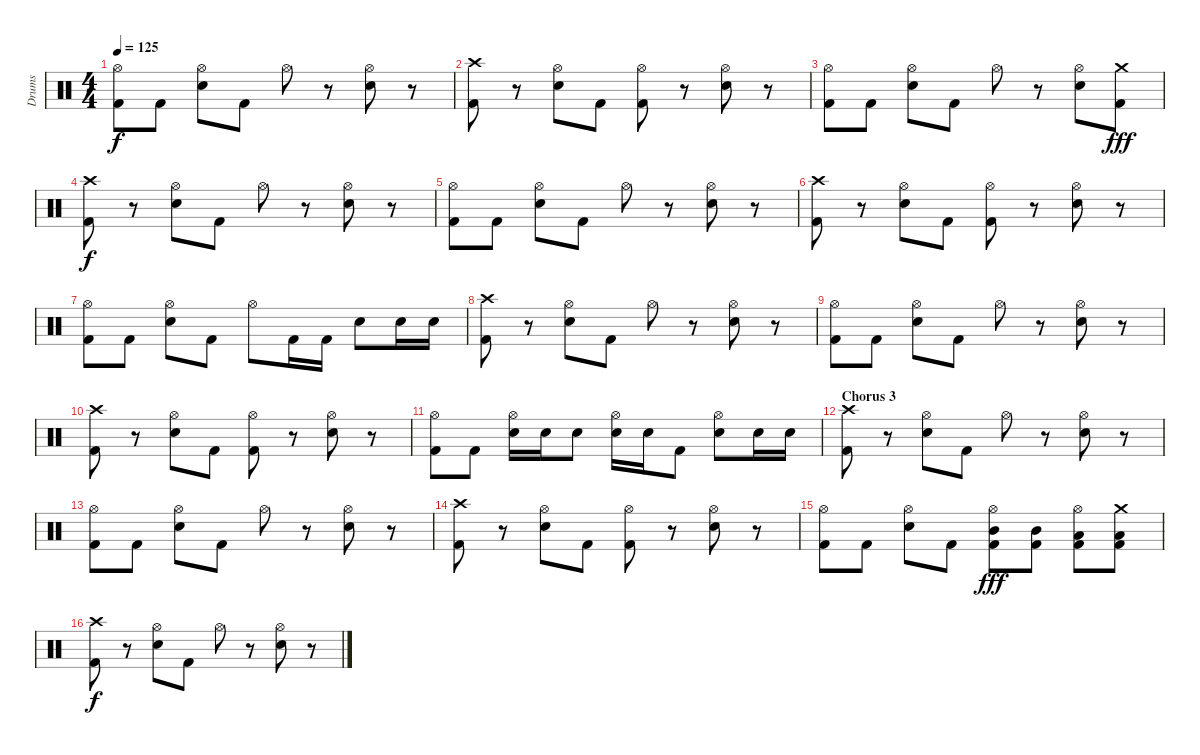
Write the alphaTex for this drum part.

\track ("Drums" "Drums") {instrument percussion}
\staff {score}
\articulation defaults
\ts (4 4)
\tempo 125
\clef neutral
\ks c
("Hi-Hat (open)" "Kick (hit) 2").8{dy f} "Kick (hit) 2".8 ("Hi-Hat (open)" "Snare (hit) 2").8 "Kick (hit) 2".8 "Hi-Hat (open)".8 r.8 ("Hi-Hat (open)" "Snare (hit) 2").8 r.8 |
("Crash high (hit)" "Kick (hit) 2").8 r.8 ("Hi-Hat (open)" "Snare (hit) 2").8 "Kick (hit) 2".8 ("Hi-Hat (open)" "Kick (hit) 2").8 r.8 ("Hi-Hat (open)" "Snare (hit) 2").8 r.8 |
("Hi-Hat (open)" "Kick (hit) 2").8 "Kick (hit) 2".8 ("Hi-Hat (open)" "Snare (hit) 2").8 "Kick (hit) 2".8 "Hi-Hat (open)".8 r.8 ("Hi-Hat (open)" "Snare (hit) 2").8 ("Crash medium (hit)" "Kick (hit) 2").8{dy fff} |
("Crash high (hit)" "Kick (hit) 2").8{dy f} r.8 ("Hi-Hat (open)" "Snare (hit) 2").8 "Kick (hit) 2".8 "Hi-Hat (open)".8 r.8 ("Hi-Hat (open)" "Snare (hit) 2").8 r.8 |
("Hi-Hat (open)" "Kick (hit) 2").8 "Kick (hit) 2".8 ("Hi-Hat (open)" "Snare (hit) 2").8 "Kick (hit) 2".8 "Hi-Hat (open)".8 r.8 ("Hi-Hat (open)" "Snare (hit) 2").8 r.8 |
("Crash high (hit)" "Kick (hit) 2").8 r.8 ("Hi-Hat (open)" "Snare (hit) 2").8 "Kick (hit) 2".8 ("Hi-Hat (open)" "Kick (hit) 2").8 r.8 ("Hi-Hat (open)" "Snare (hit) 2").8 r.8 |
("Hi-Hat (open)" "Kick (hit) 2").8 "Kick (hit) 2".8 ("Hi-Hat (open)" "Snare (hit) 2").8 "Kick (hit) 2".8 "Hi-Hat (open)".8 "Kick (hit) 2".16 "Kick (hit) 2".16 "Snare (hit) 2".8 "Snare (hit) 2".16 "Snare (hit) 2".16 |
("Crash high (hit)" "Kick (hit) 2").8 r.8 ("Hi-Hat (open)" "Snare (hit) 2").8 "Kick (hit) 2".8 "Hi-Hat (open)".8 r.8 ("Hi-Hat (open)" "Snare (hit) 2").8 r.8 |
("Hi-Hat (open)" "Kick (hit) 2").8 "Kick (hit) 2".8 ("Hi-Hat (open)" "Snare (hit) 2").8 "Kick (hit) 2".8 "Hi-Hat (open)".8 r.8 ("Hi-Hat (open)" "Snare (hit) 2").8 r.8 |
("Crash high (hit)" "Kick (hit) 2").8 r.8 ("Hi-Hat (open)" "Snare (hit) 2").8 "Kick (hit) 2".8 ("Hi-Hat (open)" "Kick (hit) 2").8 r.8 ("Hi-Hat (open)" "Snare (hit) 2").8 r.8 |
("Hi-Hat (open)" "Kick (hit) 2").8 "Kick (hit) 2".8 ("Hi-Hat (open)" "Snare (hit) 2").16 "Snare (hit) 2".16 "Snare (hit) 2".8 ("Hi-Hat (open)" "Snare (hit) 2").16 "Snare (hit) 2".16 "Kick (hit) 2".8 ("Hi-Hat (open)" "Snare (hit) 2").8 "Snare (hit) 2".16 "Snare (hit) 2".16 |
\section ("" "Chorus 3")
("Crash high (hit)" "Kick (hit) 2").8 r.8 ("Hi-Hat (open)" "Snare (hit) 2").8 "Kick (hit) 2".8 "Hi-Hat (open)".8 r.8 ("Hi-Hat (open)" "Snare (hit) 2").8 r.8 |
("Hi-Hat (open)" "Kick (hit) 2").8 "Kick (hit) 2".8 ("Hi-Hat (open)" "Snare (hit) 2").8 "Kick (hit) 2".8 "Hi-Hat (open)".8 r.8 ("Hi-Hat (open)" "Snare (hit) 2").8 r.8 |
("Crash high (hit)" "Kick (hit) 2").8 r.8 ("Hi-Hat (open)" "Snare (hit) 2").8 "Kick (hit) 2".8 ("Hi-Hat (open)" "Kick (hit) 2").8 r.8 ("Hi-Hat (open)" "Snare (hit) 2").8 r.8 |
("Hi-Hat (open)" "Kick (hit) 2").8 "Kick (hit) 2".8 ("Hi-Hat (open)" "Snare (hit) 2").8 "Kick (hit) 2".8 ("Hi-Hat (open)" "Kick (hit) 2" "Mid Tom (hit)").8{dy fff} ("Kick (hit) 2" "Mid Tom (hit)").8 ("Hi-Hat (open)" "Kick (hit) 2" "Low Tom (hit)").8 ("Crash medium (hit)" "Kick (hit) 2" "Low Tom (hit)").8 |
("Crash high (hit)" "Kick (hit) 2").8{dy f} r.8 ("Hi-Hat (open)" "Snare (hit) 2").8 "Kick (hit) 2".8 "Hi-Hat (open)".8 r.8 ("Hi-Hat (open)" "Snare (hit) 2").8 r.8
